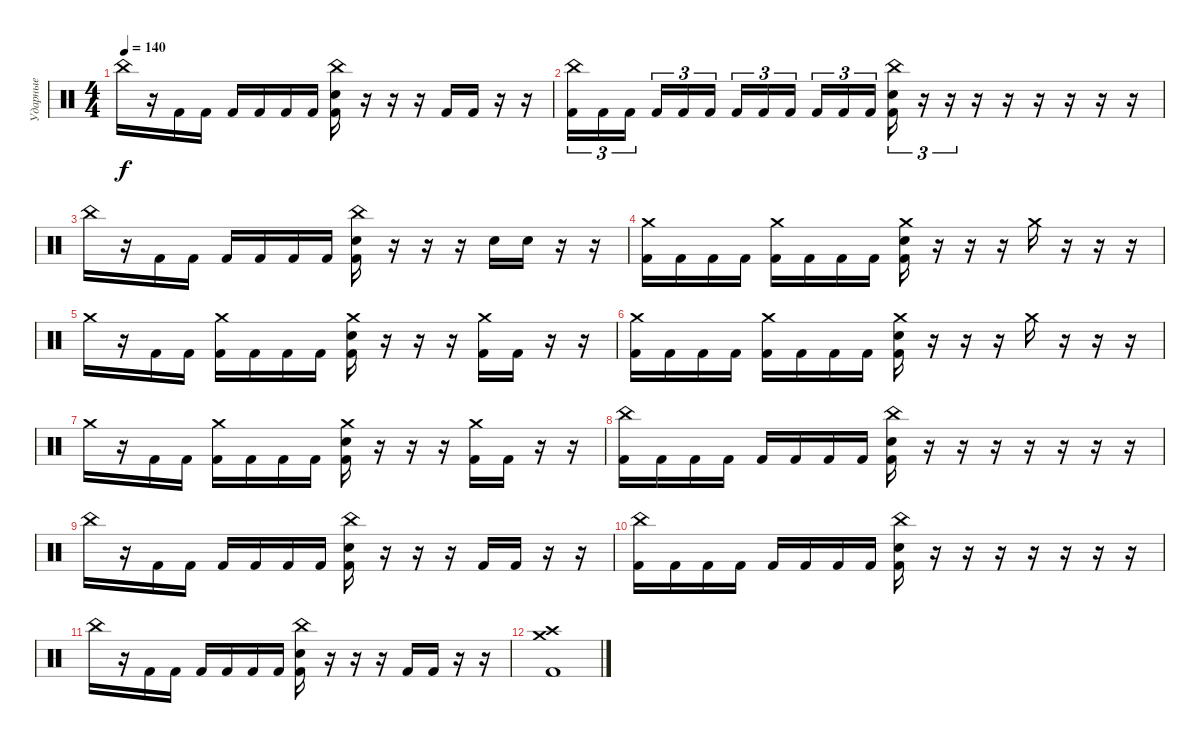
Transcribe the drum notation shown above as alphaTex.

\track ("Ударные" "Ударные") {instrument percussion}
\staff {score}
\articulation defaults
\ts (4 4)
\tempo 140
\clef neutral
\ks c "China (hit)".16{dy f}
r.16 "Kick (hit) 2".16 "Kick (hit) 2".16 "Kick (hit) 2".16 "Kick (hit) 2".16 "Kick (hit) 2".16 "Kick (hit) 2".16 ("China (hit)" "Electric Snare (hit)" "Kick (hit) 2").16 r.16 r.16 r.16 "Kick (hit) 2".16 "Kick (hit) 2".16 r.16 r.16 |
("China (hit)" "Kick (hit) 2").16{tu (3 2)} "Kick (hit) 2".16{tu (3 2)} "Kick (hit) 2".16{tu (3 2) beam splitsecondary} "Kick (hit) 2".16{tu (3 2)} "Kick (hit) 2".16{tu (3 2)} "Kick (hit) 2".16{tu (3 2)} "Kick (hit) 2".16{tu (3 2)} "Kick (hit) 2".16{tu (3 2)} "Kick (hit) 2".16{tu (3 2) beam splitsecondary} "Kick (hit) 2".16{tu (3 2)} "Kick (hit) 2".16{tu (3 2)} "Kick (hit) 2".16{tu (3 2)} ("China (hit)" "Electric Snare (hit)" "Kick (hit) 2").16{tu (3 2)} r.16{tu (3 2)} r.16{tu (3 2)} r.16 r.16 r.16 r.16 r.16 r.16 |
"China (hit)".16 r.16 "Kick (hit) 2".16 "Kick (hit) 2".16 "Kick (hit) 2".16 "Kick (hit) 2".16 "Kick (hit) 2".16 "Kick (hit) 2".16 ("China (hit)" "Electric Snare (hit)" "Kick (hit) 2").16 r.16 r.16 r.16 "Electric Snare (hit)".16 "Electric Snare (hit)".16 r.16 r.16 |
("Crash medium (hit)" "Kick (hit) 2").16 "Kick (hit) 2".16 "Kick (hit) 2".16 "Kick (hit) 2".16 ("Crash medium (hit)" "Kick (hit) 2").16 "Kick (hit) 2".16 "Kick (hit) 2".16 "Kick (hit) 2".16 ("Crash medium (hit)" "Electric Snare (hit)" "Kick (hit) 2").16 r.16 r.16 r.16 "Crash medium (hit)".16 r.16 r.16 r.16 |
"Crash medium (hit)".16 r.16 "Kick (hit) 2".16 "Kick (hit) 2".16 ("Crash medium (hit)" "Kick (hit) 2").16 "Kick (hit) 2".16 "Kick (hit) 2".16 "Kick (hit) 2".16 ("Crash medium (hit)" "Electric Snare (hit)" "Kick (hit) 2").16 r.16 r.16 r.16 ("Crash medium (hit)" "Kick (hit) 2").16 "Kick (hit) 2".16 r.16 r.16 |
("Crash medium (hit)" "Kick (hit) 2").16 "Kick (hit) 2".16 "Kick (hit) 2".16 "Kick (hit) 2".16 ("Crash medium (hit)" "Kick (hit) 2").16 "Kick (hit) 2".16 "Kick (hit) 2".16 "Kick (hit) 2".16 ("Crash medium (hit)" "Electric Snare (hit)" "Kick (hit) 2").16 r.16 r.16 r.16 "Crash medium (hit)".16 r.16 r.16 r.16 |
"Crash medium (hit)".16 r.16 "Kick (hit) 2".16 "Kick (hit) 2".16 ("Crash medium (hit)" "Kick (hit) 2").16 "Kick (hit) 2".16 "Kick (hit) 2".16 "Kick (hit) 2".16 ("Crash medium (hit)" "Electric Snare (hit)" "Kick (hit) 2").16 r.16 r.16 r.16 ("Crash medium (hit)" "Kick (hit) 2").16 "Kick (hit) 2".16 r.16 r.16 |
("China (hit)" "Kick (hit) 2").16 "Kick (hit) 2".16 "Kick (hit) 2".16 "Kick (hit) 2".16 "Kick (hit) 2".16 "Kick (hit) 2".16 "Kick (hit) 2".16 "Kick (hit) 2".16 ("China (hit)" "Electric Snare (hit)" "Kick (hit) 2").16 r.16 r.16 r.16 r.16 r.16 r.16 r.16 |
"China (hit)".16 r.16 "Kick (hit) 2".16 "Kick (hit) 2".16 "Kick (hit) 2".16 "Kick (hit) 2".16 "Kick (hit) 2".16 "Kick (hit) 2".16 ("China (hit)" "Electric Snare (hit)" "Kick (hit) 2").16 r.16 r.16 r.16 "Kick (hit) 2".16 "Kick (hit) 2".16 r.16 r.16 |
("China (hit)" "Kick (hit) 2").16 "Kick (hit) 2".16 "Kick (hit) 2".16 "Kick (hit) 2".16 "Kick (hit) 2".16 "Kick (hit) 2".16 "Kick (hit) 2".16 "Kick (hit) 2".16 ("China (hit)" "Electric Snare (hit)" "Kick (hit) 2").16 r.16 r.16 r.16 r.16 r.16 r.16 r.16 |
"China (hit)".16 r.16 "Kick (hit) 2".16 "Kick (hit) 2".16 "Kick (hit) 2".16 "Kick (hit) 2".16 "Kick (hit) 2".16 "Kick (hit) 2".16 ("China (hit)" "Electric Snare (hit)" "Kick (hit) 2").16 r.16 r.16 r.16 "Kick (hit) 2".16 "Kick (hit) 2".16 r.16 r.16 |
("Crash medium (hit)" "Crash high (hit)" "Kick (hit) 2").1
